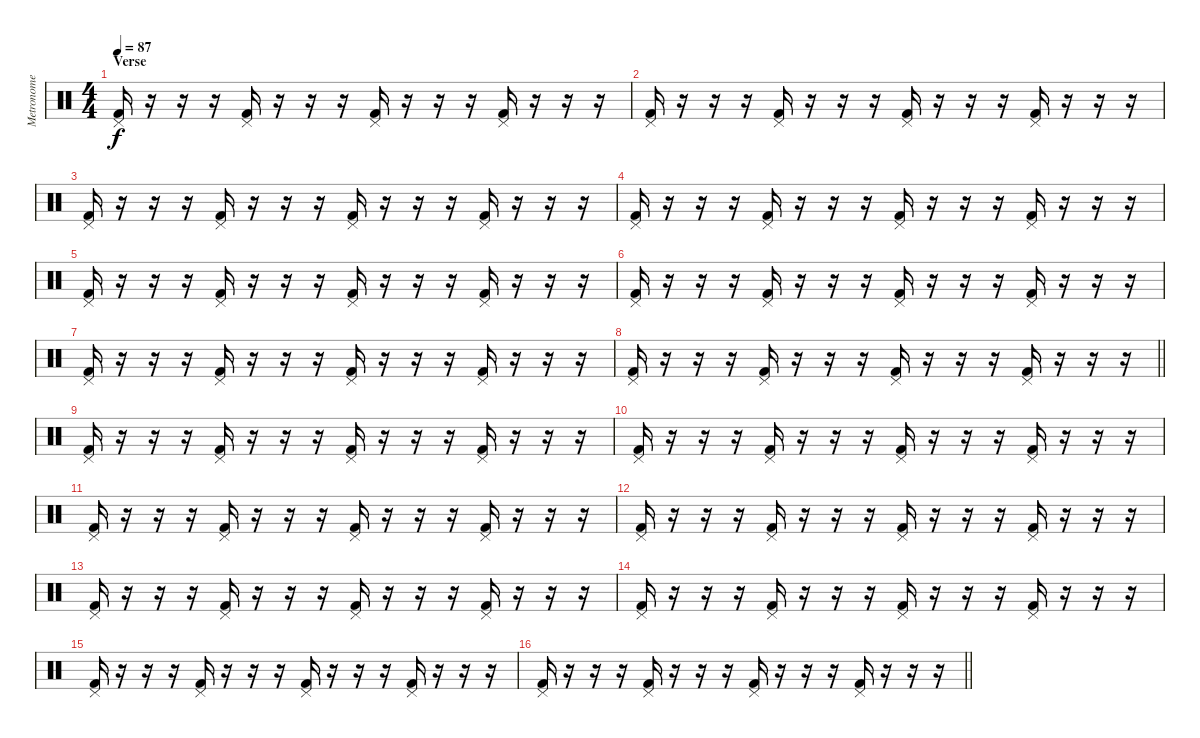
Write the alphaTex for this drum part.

\track ("Metronome" "Metronome") {mute instrument percussion}
\staff {score}
\articulation defaults
\ts (4 4)
\section ("" "Verse")
\tempo 87
\clef neutral
\ks c
("Pedal Hi-Hat (hit)" "Kick (hit) 2").16{dy f} r.16 r.16 r.16 ("Pedal Hi-Hat (hit)" "Kick (hit) 2").16 r.16 r.16 r.16 ("Pedal Hi-Hat (hit)" "Kick (hit) 2").16 r.16 r.16 r.16 ("Pedal Hi-Hat (hit)" "Kick (hit) 2").16 r.16 r.16 r.16 |
("Pedal Hi-Hat (hit)" "Kick (hit) 2").16 r.16 r.16 r.16 ("Pedal Hi-Hat (hit)" "Kick (hit) 2").16 r.16 r.16 r.16 ("Pedal Hi-Hat (hit)" "Kick (hit) 2").16 r.16 r.16 r.16 ("Pedal Hi-Hat (hit)" "Kick (hit) 2").16 r.16 r.16 r.16 |
("Pedal Hi-Hat (hit)" "Kick (hit) 2").16 r.16 r.16 r.16 ("Pedal Hi-Hat (hit)" "Kick (hit) 2").16 r.16 r.16 r.16 ("Pedal Hi-Hat (hit)" "Kick (hit) 2").16 r.16 r.16 r.16 ("Pedal Hi-Hat (hit)" "Kick (hit) 2").16 r.16 r.16 r.16 |
("Pedal Hi-Hat (hit)" "Kick (hit) 2").16 r.16 r.16 r.16 ("Pedal Hi-Hat (hit)" "Kick (hit) 2").16 r.16 r.16 r.16 ("Pedal Hi-Hat (hit)" "Kick (hit) 2").16 r.16 r.16 r.16 ("Pedal Hi-Hat (hit)" "Kick (hit) 2").16 r.16 r.16 r.16 |
("Pedal Hi-Hat (hit)" "Kick (hit) 2").16 r.16 r.16 r.16 ("Pedal Hi-Hat (hit)" "Kick (hit) 2").16 r.16 r.16 r.16 ("Pedal Hi-Hat (hit)" "Kick (hit) 2").16 r.16 r.16 r.16 ("Pedal Hi-Hat (hit)" "Kick (hit) 2").16 r.16 r.16 r.16 |
("Pedal Hi-Hat (hit)" "Kick (hit) 2").16 r.16 r.16 r.16 ("Pedal Hi-Hat (hit)" "Kick (hit) 2").16 r.16 r.16 r.16 ("Pedal Hi-Hat (hit)" "Kick (hit) 2").16 r.16 r.16 r.16 ("Pedal Hi-Hat (hit)" "Kick (hit) 2").16 r.16 r.16 r.16 |
("Pedal Hi-Hat (hit)" "Kick (hit) 2").16 r.16 r.16 r.16 ("Pedal Hi-Hat (hit)" "Kick (hit) 2").16 r.16 r.16 r.16 ("Pedal Hi-Hat (hit)" "Kick (hit) 2").16 r.16 r.16 r.16 ("Pedal Hi-Hat (hit)" "Kick (hit) 2").16 r.16 r.16 r.16 |
\barLineRight lightlight
("Pedal Hi-Hat (hit)" "Kick (hit) 2").16 r.16 r.16 r.16 ("Pedal Hi-Hat (hit)" "Kick (hit) 2").16 r.16 r.16 r.16 ("Pedal Hi-Hat (hit)" "Kick (hit) 2").16 r.16 r.16 r.16 ("Pedal Hi-Hat (hit)" "Kick (hit) 2").16 r.16 r.16 r.16 |
("Pedal Hi-Hat (hit)" "Kick (hit) 2").16 r.16 r.16 r.16 ("Pedal Hi-Hat (hit)" "Kick (hit) 2").16 r.16 r.16 r.16 ("Pedal Hi-Hat (hit)" "Kick (hit) 2").16 r.16 r.16 r.16 ("Pedal Hi-Hat (hit)" "Kick (hit) 2").16 r.16 r.16 r.16 |
("Pedal Hi-Hat (hit)" "Kick (hit) 2").16 r.16 r.16 r.16 ("Pedal Hi-Hat (hit)" "Kick (hit) 2").16 r.16 r.16 r.16 ("Pedal Hi-Hat (hit)" "Kick (hit) 2").16 r.16 r.16 r.16 ("Pedal Hi-Hat (hit)" "Kick (hit) 2").16 r.16 r.16 r.16 |
("Pedal Hi-Hat (hit)" "Kick (hit) 2").16 r.16 r.16 r.16 ("Pedal Hi-Hat (hit)" "Kick (hit) 2").16 r.16 r.16 r.16 ("Pedal Hi-Hat (hit)" "Kick (hit) 2").16 r.16 r.16 r.16 ("Pedal Hi-Hat (hit)" "Kick (hit) 2").16 r.16 r.16 r.16 |
("Pedal Hi-Hat (hit)" "Kick (hit) 2").16 r.16 r.16 r.16 ("Pedal Hi-Hat (hit)" "Kick (hit) 2").16 r.16 r.16 r.16 ("Pedal Hi-Hat (hit)" "Kick (hit) 2").16 r.16 r.16 r.16 ("Pedal Hi-Hat (hit)" "Kick (hit) 2").16 r.16 r.16 r.16 |
("Pedal Hi-Hat (hit)" "Kick (hit) 2").16 r.16 r.16 r.16 ("Pedal Hi-Hat (hit)" "Kick (hit) 2").16 r.16 r.16 r.16 ("Pedal Hi-Hat (hit)" "Kick (hit) 2").16 r.16 r.16 r.16 ("Pedal Hi-Hat (hit)" "Kick (hit) 2").16 r.16 r.16 r.16 |
("Pedal Hi-Hat (hit)" "Kick (hit) 2").16 r.16 r.16 r.16 ("Pedal Hi-Hat (hit)" "Kick (hit) 2").16 r.16 r.16 r.16 ("Pedal Hi-Hat (hit)" "Kick (hit) 2").16 r.16 r.16 r.16 ("Pedal Hi-Hat (hit)" "Kick (hit) 2").16 r.16 r.16 r.16 |
("Pedal Hi-Hat (hit)" "Kick (hit) 2").16 r.16 r.16 r.16 ("Pedal Hi-Hat (hit)" "Kick (hit) 2").16 r.16 r.16 r.16 ("Pedal Hi-Hat (hit)" "Kick (hit) 2").16 r.16 r.16 r.16 ("Pedal Hi-Hat (hit)" "Kick (hit) 2").16 r.16 r.16 r.16 |
\barLineRight lightlight
("Pedal Hi-Hat (hit)" "Kick (hit) 2").16 r.16 r.16 r.16 ("Pedal Hi-Hat (hit)" "Kick (hit) 2").16 r.16 r.16 r.16 ("Pedal Hi-Hat (hit)" "Kick (hit) 2").16 r.16 r.16 r.16 ("Pedal Hi-Hat (hit)" "Kick (hit) 2").16 r.16 r.16 r.16
